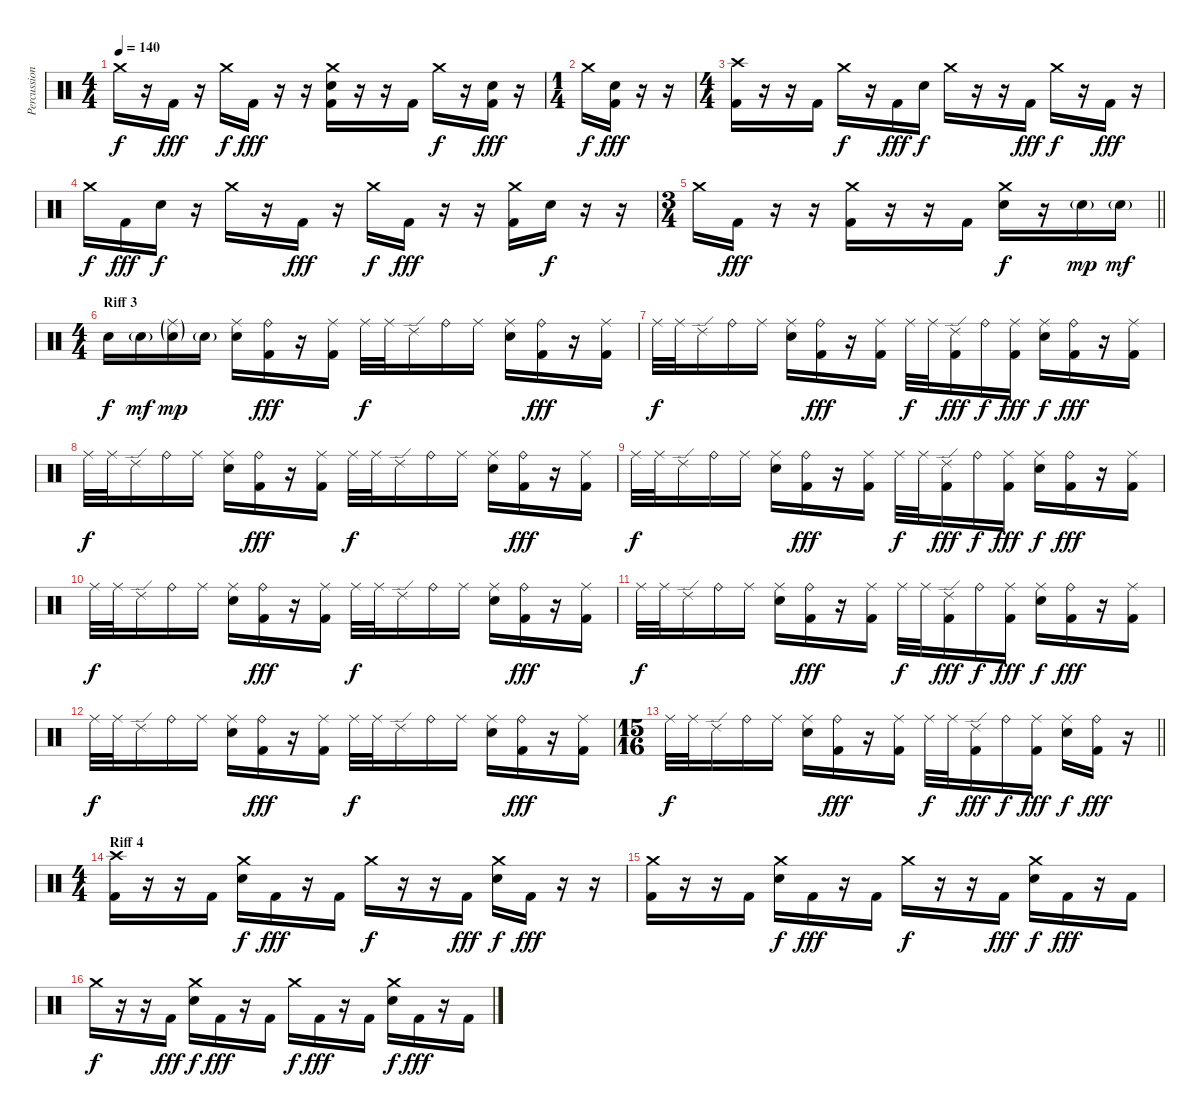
\track ("Percussion" "Percussion") {instrument percussion}
\staff {score}
\articulation defaults
\ts (4 4)
\tempo 140
\clef neutral
\ks c "Crash medium (hit)".16{dy f}
r.16 "Kick (hit) 2".16{dy fff} r.16 "Crash medium (hit)".16{dy f} "Kick (hit) 2".16{dy fff} r.16 r.16 ("Crash medium (hit)" "Electric Snare (hit)" "Kick (hit) 2").16 r.16 r.16 "Kick (hit) 2".16 "Crash medium (hit)".16{dy f} r.16 ("Electric Snare (hit)" "Kick (hit) 2").16{dy fff} r.16 |
\ts (1 4)
"Crash medium (hit)".16{dy f} ("Electric Snare (hit)" "Kick (hit) 2").16{dy fff} r.16 r.16 |
\ts (4 4)
("Crash high (hit)" "Kick (hit) 2").16 r.16 r.16 "Kick (hit) 2".16 "Crash medium (hit)".16{dy f} r.16 "Kick (hit) 2".16{dy fff} "Electric Snare (hit)".16{dy f} "Crash medium (hit)".16 r.16 r.16 "Kick (hit) 2".16{dy fff} "Crash medium (hit)".16{dy f} r.16 "Kick (hit) 2".16{dy fff} r.16 |
"Crash medium (hit)".16{dy f} "Kick (hit) 2".16{dy fff} "Electric Snare (hit)".16{dy f} r.16 "Crash medium (hit)".16 r.16 "Kick (hit) 2".16{dy fff} r.16 "Crash medium (hit)".16{dy f} "Kick (hit) 2".16{dy fff} r.16 r.16 ("Crash medium (hit)" "Kick (hit) 2").16 "Electric Snare (hit)".16{dy f} r.16 r.16 |
\ts (3 4)
\barLineRight lightlight "Crash medium (hit)".16 "Kick (hit) 2".16{dy fff}
r.16 r.16 ("Crash medium (hit)" "Kick (hit) 2").16 r.16 r.16 "Kick (hit) 2".16 ("Crash medium (hit)" "Electric Snare (hit)").16{dy f} r.16 "Electric Snare (hit)"{g}.16{dy mp} "Electric Snare (hit)"{g}.16{dy mf} |
\ts (4 4)
\section ("" "Riff 3")
"Electric Snare (hit)".16{dy f} "Electric Snare (hit)"{g}.16{dy mf} ("Ride (middle)"{g} "Electric Snare (hit)"{g}).16{dy mp} "Electric Snare (hit)"{g}.16 ("Ride (middle)" "Electric Snare (hit)").16 ("Ride (bell)" "Kick (hit) 2").16{dy fff} r.16 ("Ride (middle)" "Kick (hit) 2").16 "Ride (middle)".32{dy f} "Ride (middle)".32 "Ride (edge) 2".16 "Ride (bell)".16 "Ride (middle)".16 ("Ride (middle)" "Electric Snare (hit)").16 ("Ride (bell)" "Kick (hit) 2").16{dy fff} r.16 ("Ride (middle)" "Kick (hit) 2").16 |
"Ride (middle)".32{dy f} "Ride (middle)".32 "Ride (edge) 2".16 "Ride (bell)".16 "Ride (middle)".16 ("Ride (middle)" "Electric Snare (hit)").16 ("Ride (bell)" "Kick (hit) 2").16{dy fff} r.16 ("Ride (middle)" "Kick (hit) 2").16 "Ride (middle)".32{dy f} "Ride (middle)".32 ("Ride (edge) 2" "Kick (hit) 2").16{dy fff} "Ride (bell)".16{dy f} ("Ride (middle)" "Kick (hit) 2").16{dy fff} ("Ride (middle)" "Electric Snare (hit)").16{dy f} ("Ride (bell)" "Kick (hit) 2").16{dy fff} r.16 ("Ride (middle)" "Kick (hit) 2").16 |
"Ride (middle)".32{dy f} "Ride (middle)".32 "Ride (edge) 2".16 "Ride (bell)".16 "Ride (middle)".16 ("Ride (middle)" "Electric Snare (hit)").16 ("Ride (bell)" "Kick (hit) 2").16{dy fff} r.16 ("Ride (middle)" "Kick (hit) 2").16 "Ride (middle)".32{dy f} "Ride (middle)".32 "Ride (edge) 2".16 "Ride (bell)".16 "Ride (middle)".16 ("Ride (middle)" "Electric Snare (hit)").16 ("Ride (bell)" "Kick (hit) 2").16{dy fff} r.16 ("Ride (middle)" "Kick (hit) 2").16 |
"Ride (middle)".32{dy f} "Ride (middle)".32 "Ride (edge) 2".16 "Ride (bell)".16 "Ride (middle)".16 ("Ride (middle)" "Electric Snare (hit)").16 ("Ride (bell)" "Kick (hit) 2").16{dy fff} r.16 ("Ride (middle)" "Kick (hit) 2").16 "Ride (middle)".32{dy f} "Ride (middle)".32 ("Ride (edge) 2" "Kick (hit) 2").16{dy fff} "Ride (bell)".16{dy f} ("Ride (middle)" "Kick (hit) 2").16{dy fff} ("Ride (middle)" "Electric Snare (hit)").16{dy f} ("Ride (bell)" "Kick (hit) 2").16{dy fff} r.16 ("Ride (middle)" "Kick (hit) 2").16 |
"Ride (middle)".32{dy f} "Ride (middle)".32 "Ride (edge) 2".16 "Ride (bell)".16 "Ride (middle)".16 ("Ride (middle)" "Electric Snare (hit)").16 ("Ride (bell)" "Kick (hit) 2").16{dy fff} r.16 ("Ride (middle)" "Kick (hit) 2").16 "Ride (middle)".32{dy f} "Ride (middle)".32 "Ride (edge) 2".16 "Ride (bell)".16 "Ride (middle)".16 ("Ride (middle)" "Electric Snare (hit)").16 ("Ride (bell)" "Kick (hit) 2").16{dy fff} r.16 ("Ride (middle)" "Kick (hit) 2").16 |
"Ride (middle)".32{dy f} "Ride (middle)".32 "Ride (edge) 2".16 "Ride (bell)".16 "Ride (middle)".16 ("Ride (middle)" "Electric Snare (hit)").16 ("Ride (bell)" "Kick (hit) 2").16{dy fff} r.16 ("Ride (middle)" "Kick (hit) 2").16 "Ride (middle)".32{dy f} "Ride (middle)".32 ("Ride (edge) 2" "Kick (hit) 2").16{dy fff} "Ride (bell)".16{dy f} ("Ride (middle)" "Kick (hit) 2").16{dy fff} ("Ride (middle)" "Electric Snare (hit)").16{dy f} ("Ride (bell)" "Kick (hit) 2").16{dy fff} r.16 ("Ride (middle)" "Kick (hit) 2").16 |
"Ride (middle)".32{dy f} "Ride (middle)".32 "Ride (edge) 2".16 "Ride (bell)".16 "Ride (middle)".16 ("Ride (middle)" "Electric Snare (hit)").16 ("Ride (bell)" "Kick (hit) 2").16{dy fff} r.16 ("Ride (middle)" "Kick (hit) 2").16 "Ride (middle)".32{dy f} "Ride (middle)".32 "Ride (edge) 2".16 "Ride (bell)".16 "Ride (middle)".16 ("Ride (middle)" "Electric Snare (hit)").16 ("Ride (bell)" "Kick (hit) 2").16{dy fff} r.16 ("Ride (middle)" "Kick (hit) 2").16 |
\ts (15 16)
\barLineRight lightlight "Ride (middle)".32{dy f} "Ride (middle)".32 "Ride (edge) 2".16 "Ride (bell)".16 "Ride (middle)".16
("Ride (middle)" "Electric Snare (hit)").16 ("Ride (bell)" "Kick (hit) 2").16{dy fff} r.16 ("Ride (middle)" "Kick (hit) 2").16 "Ride (middle)".32{dy f} "Ride (middle)".32 ("Ride (edge) 2" "Kick (hit) 2").16{dy fff} "Ride (bell)".16{dy f} ("Ride (middle)" "Kick (hit) 2").16{dy fff} ("Ride (middle)" "Electric Snare (hit)").16{dy f} ("Ride (bell)" "Kick (hit) 2").16{dy fff} r.16 |
\ts (4 4)
\section ("" "Riff 4")
("Crash high (hit)" "Kick (hit) 2").16 r.16 r.16 "Kick (hit) 2".16 ("Crash medium (hit)" "Electric Snare (hit)").16{dy f} "Kick (hit) 2".16{dy fff} r.16 "Kick (hit) 2".16 "Crash medium (hit)".16{dy f} r.16 r.16 "Kick (hit) 2".16{dy fff} ("Crash medium (hit)" "Electric Snare (hit)").16{dy f} "Kick (hit) 2".16{dy fff} r.16 r.16 |
("Crash medium (hit)" "Kick (hit) 2").16 r.16 r.16 "Kick (hit) 2".16 ("Crash medium (hit)" "Electric Snare (hit)").16{dy f} "Kick (hit) 2".16{dy fff} r.16 "Kick (hit) 2".16 "Crash medium (hit)".16{dy f} r.16 r.16 "Kick (hit) 2".16{dy fff} ("Crash medium (hit)" "Electric Snare (hit)").16{dy f} "Kick (hit) 2".16{dy fff} r.16 "Kick (hit) 2".16 |
"Crash medium (hit)".16{dy f} r.16 r.16 "Kick (hit) 2".16{dy fff} ("Crash medium (hit)" "Electric Snare (hit)").16{dy f} "Kick (hit) 2".16{dy fff} r.16 "Kick (hit) 2".16 "Crash medium (hit)".16{dy f} "Kick (hit) 2".16{dy fff} r.16 "Kick (hit) 2".16 ("Crash medium (hit)" "Electric Snare (hit)").16{dy f} "Kick (hit) 2".16{dy fff} r.16 "Kick (hit) 2".16
